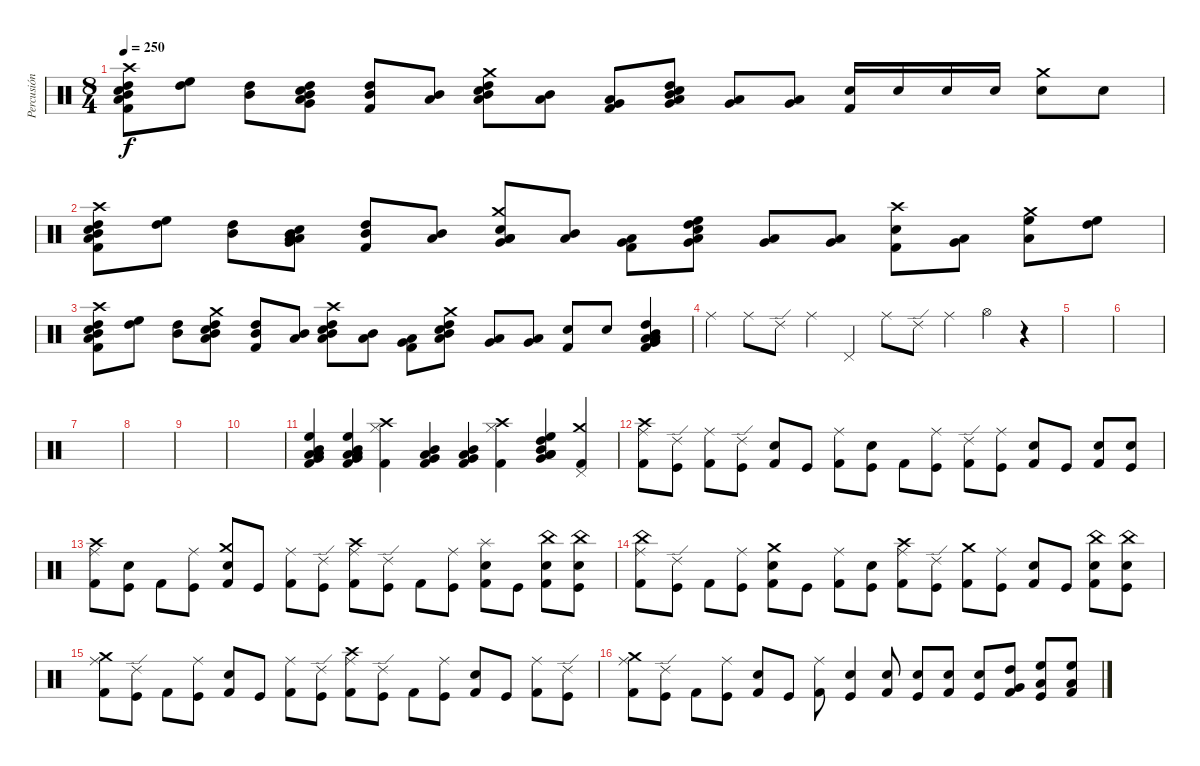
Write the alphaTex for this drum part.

\track ("Percusión" "Percusión") {instrument percussion}
\staff {score}
\articulation defaults
\ts (8 4)
\tempo 250
\clef neutral
\ks c
("Crash high (hit)" "Low Tom (hit)" "Mid Tom (hit)" "High Tom (hit)" "Electric Snare (hit)" "Kick (hit) 2").8{dy f} ("High Tom (hit)" "High Floor Tom (hit)").8 ("Mid Tom (hit)" "High Tom (hit)").8 ("Very Low Tom (hit)" "Low Tom (hit)" "Mid Tom (hit)" "High Tom (hit)" "Electric Snare (hit)").8 ("Mid Tom (hit)" "High Tom (hit)" "Kick (hit) 2").8 ("Low Tom (hit)" "Mid Tom (hit)").8 ("Crash medium (hit)" "Low Tom (hit)" "Mid Tom (hit)" "High Tom (hit)" "Electric Snare (hit)").8 ("Low Tom (hit)" "Mid Tom (hit)").8 ("Very Low Tom (hit)" "Low Tom (hit)" "Kick (hit) 2").8 ("Very Low Tom (hit)" "Low Tom (hit)" "Mid Tom (hit)" "High Tom (hit)" "Electric Snare (hit)").8 ("Very Low Tom (hit)" "Low Tom (hit)").8 ("Low Floor Tom (hit)" "Very Low Tom (hit)").8 ("Electric Snare (hit)" "Kick (hit) 2").16 "Electric Snare (hit)".16 "Electric Snare (hit)".16 "Electric Snare (hit)".16 ("Crash medium (hit)" "Electric Snare (hit)").8 "Electric Snare (hit)".8 |
("Crash high (hit)" "Low Tom (hit)" "Mid Tom (hit)" "High Tom (hit)" "Electric Snare (hit)" "Kick (hit) 2").8 ("High Tom (hit)" "High Floor Tom (hit)").8 ("Mid Tom (hit)" "High Tom (hit)").8 ("Low Floor Tom (hit)" "Very Low Tom (hit)" "Low Tom (hit)" "Mid Tom (hit)" "Electric Snare (hit)").8 ("Mid Tom (hit)" "High Tom (hit)" "Kick (hit) 2").8 ("Low Tom (hit)" "Mid Tom (hit)").8 ("Crash medium (hit)" "Low Floor Tom (hit)" "Very Low Tom (hit)" "Low Tom (hit)" "Electric Snare (hit)").8 ("Low Tom (hit)" "Mid Tom (hit)").8 ("Very Low Tom (hit)" "Low Tom (hit)" "Kick (hit) 2").8 ("High Tom (hit)" "High Floor Tom (hit)" "Low Floor Tom (hit)" "Very Low Tom (hit)" "Electric Snare (hit)").8 ("Very Low Tom (hit)" "Low Tom (hit)").8 ("Low Floor Tom (hit)" "Very Low Tom (hit)").8 ("Crash high (hit)" "Electric Snare (hit)" "Kick (hit) 2").8 ("Low Floor Tom (hit)" "Very Low Tom (hit)").8 ("Crash medium (hit)" "High Floor Tom (hit)" "Low Floor Tom (hit)").8 ("High Tom (hit)" "High Floor Tom (hit)").8 |
("Crash high (hit)" "Low Tom (hit)" "Mid Tom (hit)" "High Tom (hit)" "Electric Snare (hit)" "Kick (hit) 2").8 ("High Tom (hit)" "High Floor Tom (hit)").8 ("Mid Tom (hit)" "High Tom (hit)").8 ("Crash medium (hit)" "Low Tom (hit)" "Mid Tom (hit)" "High Tom (hit)" "Electric Snare (hit)").8 ("Mid Tom (hit)" "High Tom (hit)" "Kick (hit) 2").8 ("Low Tom (hit)" "Mid Tom (hit)").8 ("Crash high (hit)" "Low Tom (hit)" "Mid Tom (hit)" "High Tom (hit)" "Electric Snare (hit)").8 ("Low Tom (hit)" "Mid Tom (hit)").8 ("Very Low Tom (hit)" "Low Tom (hit)" "Kick (hit) 2").8 ("Crash medium (hit)" "Low Tom (hit)" "Mid Tom (hit)" "High Tom (hit)" "Electric Snare (hit)").8 ("Very Low Tom (hit)" "Low Tom (hit)").8 ("Low Floor Tom (hit)" "Very Low Tom (hit)").8 ("Electric Snare (hit)" "Kick (hit) 2").8 "Electric Snare (hit)".8 ("Low Floor Tom (hit)" "Very Low Tom (hit)" "Low Tom (hit)" "Mid Tom (hit)" "High Tom (hit)" "Kick (hit) 2").4 |
"Ride (middle)".4 "Ride (middle)".8 "Ride (edge) 2".8 "Ride (middle)".4 "Pedal Hi-Hat (hit)".4 "Ride (middle)".8 "Ride (edge) 2".8 "Ride (middle)".4 "Hi-Hat (open)".4 r.4 |
|
|
|
|
|
|
("High Floor Tom (hit)" "Low Floor Tom (hit)" "Very Low Tom (hit)" "Low Tom (hit)" "Mid Tom (hit)" "Kick (hit) 2").4 ("High Floor Tom (hit)" "Low Floor Tom (hit)" "Very Low Tom (hit)" "Low Tom (hit)" "Mid Tom (hit)" "Kick (hit) 2").4 ("Crash high (hit)" "Hi-Hat (closed)" "Kick (hit) 2").4 ("Very Low Tom (hit)" "Low Tom (hit)" "Mid Tom (hit)" "Kick (hit) 2").4 ("Very Low Tom (hit)" "Low Tom (hit)" "Mid Tom (hit)" "Kick (hit) 2").4 ("Crash high (hit)" "Hi-Hat (closed)" "Kick (hit) 2").4 ("High Floor Tom (hit)" "Low Floor Tom (hit)" "Very Low Tom (hit)" "Low Tom (hit)" "Mid Tom (hit)" "High Tom (hit)").4 ("Crash medium (hit)" "Pedal Hi-Hat (hit)" "Kick (hit) 2").4 |
("Crash high (hit)" "Ride (middle)" "Kick (hit) 2").8 ("Ride (edge) 2" "Kick (hit)").8 ("Ride (middle)" "Kick (hit) 2").8 ("Ride (edge) 2" "Kick (hit)").8 ("Electric Snare (hit)" "Kick (hit) 2").8 "Kick (hit)".8 ("Ride (middle)" "Kick (hit) 2").8 ("Electric Snare (hit)" "Kick (hit)").8 "Kick (hit) 2".8 ("Ride (middle)" "Kick (hit)").8 ("Ride (edge) 2" "Kick (hit) 2").8 ("Ride (middle)" "Kick (hit)").8 ("Electric Snare (hit)" "Kick (hit) 2").8 "Kick (hit)".8 ("Electric Snare (hit)" "Kick (hit) 2").8 ("Electric Snare (hit)" "Kick (hit)").8 |
("Crash high (hit)" "Ride (middle)" "Kick (hit) 2").8 ("Electric Snare (hit)" "Kick (hit)").8 "Kick (hit) 2".8 ("Ride (middle)" "Kick (hit)").8 ("Crash medium (hit)" "Snare (hit) 2" "Kick (hit) 2").8 "Kick (hit)".8 ("Ride (middle)" "Kick (hit) 2").8 ("Ride (edge) 2" "Kick (hit)").8 ("Crash high (hit)" "Ride (middle)" "Kick (hit) 2").8 ("Ride (edge) 2" "Kick (hit)").8 "Kick (hit) 2".8 ("Ride (middle)" "Kick (hit)").8 ("Splash (hit)" "Electric Snare (hit)" "Kick (hit) 2").8 "Kick (hit)".8 ("China (hit)" "Electric Snare (hit)" "Kick (hit) 2").8 ("China (hit)" "Electric Snare (hit)" "Kick (hit)").8 |
("China (hit)" "Ride (middle)" "Kick (hit) 2").8 ("Ride (edge) 2" "Kick (hit)").8 "Kick (hit) 2".8 ("Ride (middle)" "Kick (hit)").8 ("Crash medium (hit)" "Electric Snare (hit)" "Kick (hit) 2").8 "Kick (hit)".8 ("Ride (middle)" "Kick (hit) 2").8 ("Electric Snare (hit)" "Kick (hit)").8 ("Crash high (hit)" "Ride (middle)" "Kick (hit) 2").8 ("Ride (edge) 2" "Kick (hit)").8 ("Crash medium (hit)" "Kick (hit) 2").8 ("Ride (middle)" "Kick (hit)").8 ("Electric Snare (hit)" "Kick (hit) 2").8 "Kick (hit)".8 ("China (hit)" "Electric Snare (hit)" "Kick (hit) 2").8 ("China (hit)" "Electric Snare (hit)" "Kick (hit)").8 |
("Crash medium (hit)" "Ride (middle)" "Kick (hit) 2").8 ("Ride (edge) 2" "Kick (hit)").8 "Kick (hit) 2".8 ("Ride (middle)" "Kick (hit)").8 ("Electric Snare (hit)" "Kick (hit) 2").8 "Kick (hit)".8 ("Ride (middle)" "Kick (hit) 2").8 ("Ride (edge) 2" "Kick (hit)").8 ("Crash high (hit)" "Ride (middle)" "Kick (hit) 2").8 ("Ride (edge) 2" "Kick (hit)").8 "Kick (hit) 2".8 ("Ride (middle)" "Kick (hit)").8 ("Electric Snare (hit)" "Kick (hit) 2").8 "Kick (hit)".8 ("Ride (middle)" "Kick (hit) 2").8 ("Ride (edge) 2" "Kick (hit)").8 |
("Crash medium (hit)" "Ride (middle)" "Kick (hit) 2").8 ("Ride (edge) 2" "Kick (hit)").8 "Kick (hit) 2".8 ("Ride (middle)" "Kick (hit)").8 ("Electric Snare (hit)" "Kick (hit) 2").8 "Kick (hit)".8 ("Ride (middle)" "Kick (hit) 2").8 ("Electric Snare (hit)" "Kick (hit)").4 ("Electric Snare (hit)" "Kick (hit) 2").8 ("Electric Snare (hit)" "Kick (hit)").8 ("Electric Snare (hit)" "Kick (hit) 2").8 ("Electric Snare (hit)" "Kick (hit)").8 ("High Tom (hit)" "Very Low Tom (hit)" "Kick (hit) 2").8 ("High Floor Tom (hit)" "Low Floor Tom (hit)" "Kick (hit)").8 ("Low Floor Tom (hit)" "High Floor Tom (hit)" "Kick (hit) 2").8
